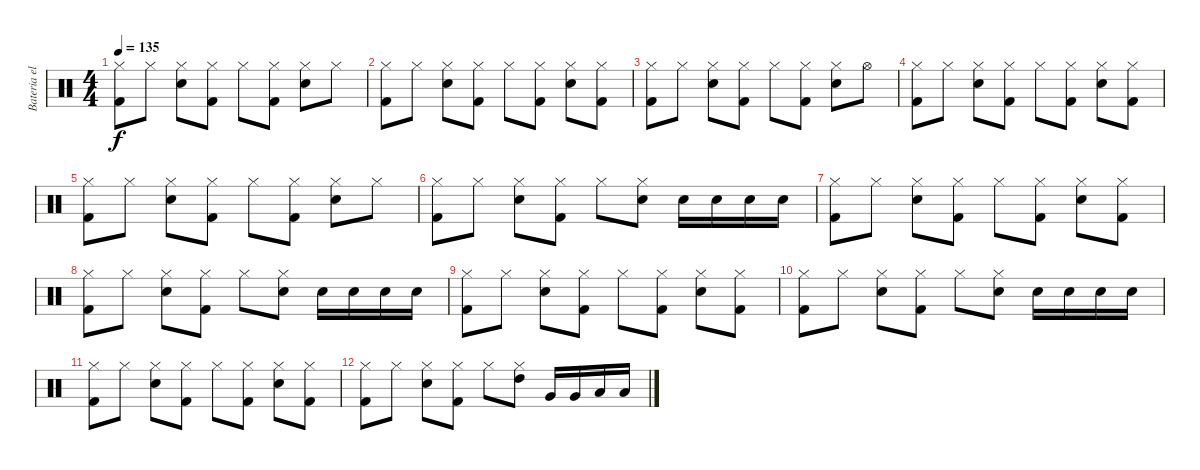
\track ("Bateria electrica" "Bateria el") {instrument percussion}
\staff {score}
\articulation defaults
\ts (4 4)
\tempo 135
\clef neutral
\ks c
("Hi-Hat (closed)" "Kick (hit) 2").8{dy f} "Hi-Hat (closed)".8 ("Hi-Hat (closed)" "Snare (hit) 2").8 ("Hi-Hat (closed)" "Kick (hit) 2").8 "Hi-Hat (closed)".8 ("Hi-Hat (closed)" "Kick (hit) 2").8 ("Hi-Hat (closed)" "Snare (hit) 2").8 "Hi-Hat (closed)".8 |
("Hi-Hat (closed)" "Kick (hit) 2").8 "Hi-Hat (closed)".8 ("Hi-Hat (closed)" "Snare (hit) 2").8 ("Hi-Hat (closed)" "Kick (hit) 2").8 "Hi-Hat (closed)".8 ("Hi-Hat (closed)" "Kick (hit) 2").8 ("Hi-Hat (closed)" "Snare (hit) 2").8 ("Hi-Hat (closed)" "Kick (hit) 2").8 |
("Hi-Hat (closed)" "Kick (hit) 2").8 "Hi-Hat (closed)".8 ("Hi-Hat (closed)" "Snare (hit) 2").8 ("Hi-Hat (closed)" "Kick (hit) 2").8 "Hi-Hat (closed)".8 ("Hi-Hat (closed)" "Kick (hit) 2").8 ("Hi-Hat (closed)" "Snare (hit) 2").8 "Hi-Hat (open)".8 |
("Hi-Hat (closed)" "Kick (hit) 2").8 "Hi-Hat (closed)".8 ("Hi-Hat (closed)" "Snare (hit) 2").8 ("Hi-Hat (closed)" "Kick (hit) 2").8 "Hi-Hat (closed)".8 ("Hi-Hat (closed)" "Kick (hit) 2").8 ("Hi-Hat (closed)" "Snare (hit) 2").8 ("Hi-Hat (closed)" "Kick (hit) 2").8 |
("Hi-Hat (closed)" "Kick (hit) 2").8 "Hi-Hat (closed)".8 ("Hi-Hat (closed)" "Snare (hit) 2").8 ("Hi-Hat (closed)" "Kick (hit) 2").8 "Hi-Hat (closed)".8 ("Hi-Hat (closed)" "Kick (hit) 2").8 ("Hi-Hat (closed)" "Snare (hit) 2").8 "Hi-Hat (closed)".8 |
("Hi-Hat (closed)" "Kick (hit) 2").8 "Hi-Hat (closed)".8 ("Hi-Hat (closed)" "Snare (hit) 2").8 ("Hi-Hat (closed)" "Kick (hit) 2").8 "Hi-Hat (closed)".8 ("Hi-Hat (closed)" "Snare (hit) 2").8 "Snare (hit) 2".16 "Snare (hit) 2".16 "Snare (hit) 2".16 "Snare (hit) 2".16 |
("Hi-Hat (closed)" "Kick (hit) 2").8 "Hi-Hat (closed)".8 ("Hi-Hat (closed)" "Snare (hit) 2").8 ("Hi-Hat (closed)" "Kick (hit) 2").8 "Hi-Hat (closed)".8 ("Hi-Hat (closed)" "Kick (hit) 2").8 ("Hi-Hat (closed)" "Snare (hit) 2").8 ("Hi-Hat (closed)" "Kick (hit) 2").8 |
("Hi-Hat (closed)" "Kick (hit) 2").8 "Hi-Hat (closed)".8 ("Hi-Hat (closed)" "Snare (hit) 2").8 ("Hi-Hat (closed)" "Kick (hit) 2").8 "Hi-Hat (closed)".8 ("Hi-Hat (closed)" "Snare (hit) 2").8 "Snare (hit) 2".16 "Snare (hit) 2".16 "Snare (hit) 2".16 "Snare (hit) 2".16 |
("Hi-Hat (closed)" "Kick (hit) 2").8 "Hi-Hat (closed)".8 ("Hi-Hat (closed)" "Snare (hit) 2").8 ("Hi-Hat (closed)" "Kick (hit) 2").8 "Hi-Hat (closed)".8 ("Hi-Hat (closed)" "Kick (hit) 2").8 ("Hi-Hat (closed)" "Snare (hit) 2").8 ("Hi-Hat (closed)" "Kick (hit) 2").8 |
("Hi-Hat (closed)" "Kick (hit) 2").8 "Hi-Hat (closed)".8 ("Hi-Hat (closed)" "Snare (hit) 2").8 ("Hi-Hat (closed)" "Kick (hit) 2").8 "Hi-Hat (closed)".8 ("Hi-Hat (closed)" "Snare (hit) 2").8 "Snare (hit) 2".16 "Snare (hit) 2".16 "Snare (hit) 2".16 "Snare (hit) 2".16 |
("Hi-Hat (closed)" "Kick (hit) 2").8 "Hi-Hat (closed)".8 ("Hi-Hat (closed)" "Snare (hit) 2").8 ("Hi-Hat (closed)" "Kick (hit) 2").8 "Hi-Hat (closed)".8 ("Hi-Hat (closed)" "Kick (hit) 2").8 ("Hi-Hat (closed)" "Snare (hit) 2").8 ("Hi-Hat (closed)" "Kick (hit) 2").8 |
("Hi-Hat (closed)" "Kick (hit) 2").8 "Hi-Hat (closed)".8 ("Hi-Hat (closed)" "Snare (hit) 2").8 ("Hi-Hat (closed)" "Kick (hit) 2").8 "Hi-Hat (closed)".8 ("Hi-Hat (closed)" "High Tom (hit)").8 "Very Low Tom (hit)".16 "Very Low Tom (hit)".16 "Low Floor Tom (hit)".16 "Low Floor Tom (hit)".16
